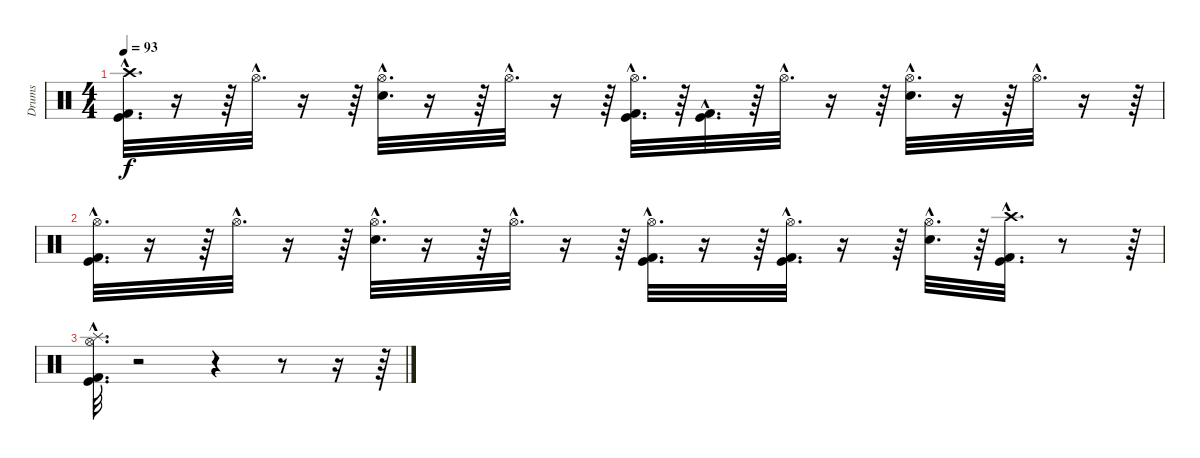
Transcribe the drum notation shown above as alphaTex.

\track ("Drums" "Drums") {instrument percussion}
\staff {score}
\articulation defaults
\ts (4 4)
\tempo 93
\clef neutral
\ks c
("Kick (hit)"{hac} "Crash high (hit)"{hac} "Kick (hit) 2"{hac}).32{d dy f} r.16 r.64 "Hi-Hat (open)"{hac}.32{d} r.16 r.64 ("Hi-Hat (open)"{hac} "Snare (hit) 2"{hac}).32{d} r.16 r.64 "Hi-Hat (open)"{hac}.32{d} r.16 r.64 ("Kick (hit)"{hac} "Hi-Hat (open)"{hac} "Kick (hit) 2"{hac}).32{d} r.64 ("Kick (hit)"{hac} "Kick (hit) 2"{hac}).32{d} r.64 "Hi-Hat (open)"{hac}.32{d} r.16 r.64 ("Hi-Hat (open)"{hac} "Snare (hit) 2"{hac}).32{d} r.16 r.64 "Hi-Hat (open)"{hac}.32{d} r.16 r.64 |
("Kick (hit)"{hac} "Hi-Hat (open)"{hac} "Kick (hit) 2"{hac}).32{d} r.16 r.64 "Hi-Hat (open)"{hac}.32{d} r.16 r.64 ("Hi-Hat (open)"{hac} "Snare (hit) 2"{hac}).32{d} r.16 r.64 "Hi-Hat (open)"{hac}.32{d} r.16 r.64 ("Kick (hit)"{hac} "Kick (hit) 2"{hac} "Hi-Hat (open)"{hac}).32{d} r.16 r.64 ("Kick (hit)"{hac} "Kick (hit) 2"{hac} "Hi-Hat (open)"{hac}).32{d} r.16 r.64 ("Hi-Hat (open)"{hac} "Snare (hit) 2"{hac}).32{d} r.64 ("Kick (hit)"{hac} "Crash high (hit)"{hac} "Kick (hit) 2"{hac}).32{d} r.8 r.64 |
("Kick (hit)"{hac} "Splash (hit)"{hac} "Hi-Hat (open)"{hac} "Kick (hit) 2"{hac}).32{d} r.2 r.4 r.8 r.16 r.64
